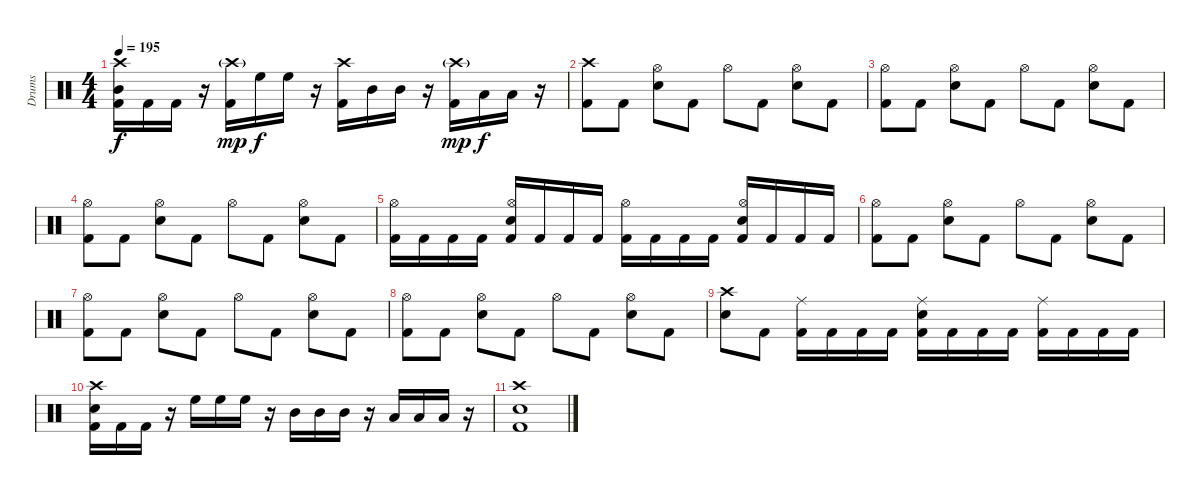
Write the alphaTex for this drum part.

\track ("Drums" "Drums") {instrument percussion}
\staff {score}
\articulation defaults
\ts (4 4)
\tempo 195
\clef neutral
\ks c
("Crash high (hit)" "Mid Tom (hit)" "Kick (hit) 2").16{dy f} "Kick (hit) 2".16 "Kick (hit) 2".16 r.16 ("Crash high (hit)"{g} "Kick (hit) 2").16{dy mp} "High Floor Tom (hit)".16{dy f} "High Floor Tom (hit)".16 r.16 ("Crash high (hit)" "Kick (hit) 2").16 "Mid Tom (hit)".16 "Mid Tom (hit)".16 r.16 ("Crash high (hit)"{g} "Kick (hit) 2").16{dy mp} "Low Floor Tom (hit)".16{dy f} "Low Floor Tom (hit)".16 r.16 |
("Crash high (hit)" "Kick (hit) 2").8 "Kick (hit) 2".8 ("Hi-Hat (open)" "Snare (hit) 2").8 "Kick (hit) 2".8 "Hi-Hat (open)".8 "Kick (hit) 2".8 ("Hi-Hat (open)" "Snare (hit) 2").8 "Kick (hit) 2".8 |
("Hi-Hat (open)" "Kick (hit) 2").8 "Kick (hit) 2".8 ("Hi-Hat (open)" "Snare (hit) 2").8 "Kick (hit) 2".8 "Hi-Hat (open)".8 "Kick (hit) 2".8 ("Hi-Hat (open)" "Snare (hit) 2").8 "Kick (hit) 2".8 |
("Hi-Hat (open)" "Kick (hit) 2").8 "Kick (hit) 2".8 ("Hi-Hat (open)" "Snare (hit) 2").8 "Kick (hit) 2".8 "Hi-Hat (open)".8 "Kick (hit) 2".8 ("Hi-Hat (open)" "Snare (hit) 2").8 "Kick (hit) 2".8 |
("Hi-Hat (open)" "Kick (hit) 2").16 "Kick (hit) 2".16 "Kick (hit) 2".16 "Kick (hit) 2".16 ("Hi-Hat (open)" "Snare (hit) 2" "Kick (hit) 2").16 "Kick (hit) 2".16 "Kick (hit) 2".16 "Kick (hit) 2".16 ("Hi-Hat (open)" "Kick (hit) 2").16 "Kick (hit) 2".16 "Kick (hit) 2".16 "Kick (hit) 2".16 ("Hi-Hat (open)" "Snare (hit) 2" "Kick (hit) 2").16 "Kick (hit) 2".16 "Kick (hit) 2".16 "Kick (hit) 2".16 |
("Hi-Hat (open)" "Kick (hit) 2").8 "Kick (hit) 2".8 ("Hi-Hat (open)" "Snare (hit) 2").8 "Kick (hit) 2".8 "Hi-Hat (open)".8 "Kick (hit) 2".8 ("Hi-Hat (open)" "Snare (hit) 2").8 "Kick (hit) 2".8 |
("Hi-Hat (open)" "Kick (hit) 2").8 "Kick (hit) 2".8 ("Hi-Hat (open)" "Snare (hit) 2").8 "Kick (hit) 2".8 "Hi-Hat (open)".8 "Kick (hit) 2".8 ("Hi-Hat (open)" "Snare (hit) 2").8 "Kick (hit) 2".8 |
("Hi-Hat (open)" "Kick (hit) 2").8 "Kick (hit) 2".8 ("Hi-Hat (open)" "Snare (hit) 2").8 "Kick (hit) 2".8 "Hi-Hat (open)".8 "Kick (hit) 2".8 ("Hi-Hat (open)" "Snare (hit) 2").8 "Kick (hit) 2".8 |
("Crash high (hit)" "Snare (hit) 2").8 "Kick (hit) 2".8 ("Ride (middle)" "Kick (hit) 2").16 "Kick (hit) 2".16 "Kick (hit) 2".16 "Kick (hit) 2".16 ("Ride (middle)" "Snare (hit) 2" "Kick (hit) 2").16 "Kick (hit) 2".16 "Kick (hit) 2".16 "Kick (hit) 2".16 ("Ride (middle)" "Kick (hit) 2").16 "Kick (hit) 2".16 "Kick (hit) 2".16 "Kick (hit) 2".16 |
("Crash high (hit)" "Snare (hit) 2" "Kick (hit) 2").16 "Kick (hit) 2".16 "Kick (hit) 2".16 r.16 "High Floor Tom (hit)".16 "High Floor Tom (hit)".16 "High Floor Tom (hit)".16 r.16 "Mid Tom (hit)".16 "Mid Tom (hit)".16 "Mid Tom (hit)".16 r.16 "Low Floor Tom (hit)".16 "Low Floor Tom (hit)".16 "Low Floor Tom (hit)".16 r.16 |
("Crash high (hit)" "Snare (hit) 2" "Kick (hit) 2").1
